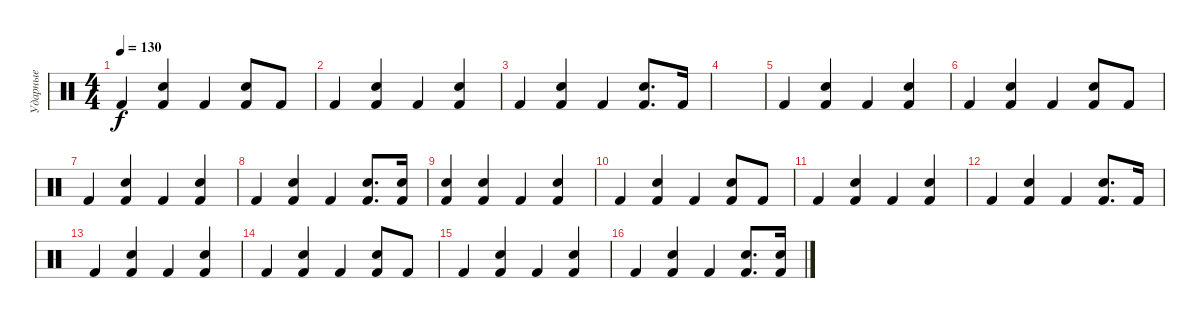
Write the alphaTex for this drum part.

\track ("Ударные" "Ударные") {instrument percussion}
\staff {score}
\articulation defaults
\ts (4 4)
\tempo 130
\clef neutral
\ks c "Kick (hit) 2".4{dy f}
("Hand Clap (hit)" "Kick (hit) 2").4 "Kick (hit) 2".4 ("Hand Clap (hit)" "Kick (hit) 2").8 "Kick (hit) 2".8 |
"Kick (hit) 2".4 ("Hand Clap (hit)" "Kick (hit) 2").4 "Kick (hit) 2".4 ("Hand Clap (hit)" "Kick (hit) 2").4 |
"Kick (hit) 2".4 ("Hand Clap (hit)" "Kick (hit) 2").4 "Kick (hit) 2".4 ("Hand Clap (hit)" "Kick (hit) 2").8{d} "Kick (hit) 2".16 |
|
"Kick (hit) 2".4 ("Hand Clap (hit)" "Kick (hit) 2").4 "Kick (hit) 2".4 ("Hand Clap (hit)" "Kick (hit) 2").4 |
"Kick (hit) 2".4 ("Hand Clap (hit)" "Kick (hit) 2").4 "Kick (hit) 2".4 ("Hand Clap (hit)" "Kick (hit) 2").8 "Kick (hit) 2".8 |
"Kick (hit) 2".4 ("Hand Clap (hit)" "Kick (hit) 2").4 "Kick (hit) 2".4 ("Hand Clap (hit)" "Kick (hit) 2").4 |
"Kick (hit) 2".4 ("Hand Clap (hit)" "Kick (hit) 2").4 "Kick (hit) 2".4 ("Hand Clap (hit)" "Kick (hit) 2").8{d} ("Hand Clap (hit)" "Kick (hit) 2").16 |
("Hand Clap (hit)" "Kick (hit) 2").4 ("Hand Clap (hit)" "Kick (hit) 2").4 "Kick (hit) 2".4 ("Hand Clap (hit)" "Kick (hit) 2").4 |
"Kick (hit) 2".4 ("Hand Clap (hit)" "Kick (hit) 2").4 "Kick (hit) 2".4 ("Hand Clap (hit)" "Kick (hit) 2").8 "Kick (hit) 2".8 |
"Kick (hit) 2".4 ("Hand Clap (hit)" "Kick (hit) 2").4 "Kick (hit) 2".4 ("Hand Clap (hit)" "Kick (hit) 2").4 |
"Kick (hit) 2".4 ("Hand Clap (hit)" "Kick (hit) 2").4 "Kick (hit) 2".4 ("Hand Clap (hit)" "Kick (hit) 2").8{d} "Kick (hit) 2".16 |
"Kick (hit) 2".4 ("Hand Clap (hit)" "Kick (hit) 2").4 "Kick (hit) 2".4 ("Hand Clap (hit)" "Kick (hit) 2").4 |
"Kick (hit) 2".4 ("Hand Clap (hit)" "Kick (hit) 2").4 "Kick (hit) 2".4 ("Hand Clap (hit)" "Kick (hit) 2").8 "Kick (hit) 2".8 |
"Kick (hit) 2".4 ("Hand Clap (hit)" "Kick (hit) 2").4 "Kick (hit) 2".4 ("Hand Clap (hit)" "Kick (hit) 2").4 |
"Kick (hit) 2".4 ("Hand Clap (hit)" "Kick (hit) 2").4 "Kick (hit) 2".4 ("Hand Clap (hit)" "Kick (hit) 2").8{d} ("Hand Clap (hit)" "Kick (hit) 2").16
